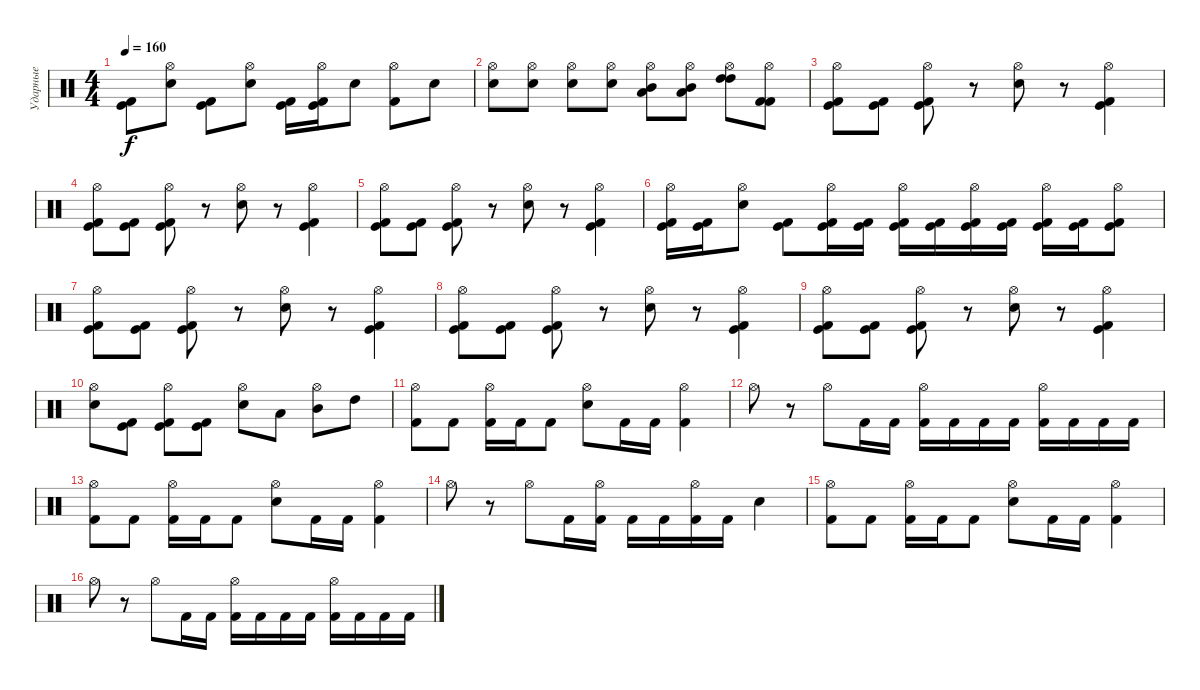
\track ("Ударные" "Ударные") {instrument percussion}
\staff {score}
\articulation defaults
\ts (4 4)
\tempo 160
\clef neutral
\ks c
("Kick (hit) 2" "Kick (hit)").8{dy f} ("Hi-Hat (open)" "Electric Snare (hit)").8 ("Kick (hit) 2" "Kick (hit)").8 ("Hi-Hat (open)" "Electric Snare (hit)").8 ("Kick (hit) 2" "Kick (hit)").16 ("Hi-Hat (open)" "Kick (hit) 2" "Kick (hit)").16 "Electric Snare (hit)".8 ("Hi-Hat (open)" "Kick (hit) 2").8 "Electric Snare (hit)".8 |
("Hi-Hat (open)" "Electric Snare (hit)").8 ("Hi-Hat (open)" "Electric Snare (hit)").8 ("Hi-Hat (open)" "Electric Snare (hit)").8 ("Hi-Hat (open)" "Electric Snare (hit)").8 ("Hi-Hat (open)" "Low Tom (hit)" "Mid Tom (hit)").8 ("Hi-Hat (open)" "Low Tom (hit)" "Mid Tom (hit)").8 ("Hi-Hat (open)" "High Tom (hit)" "High Tom (hit)").8 ("Hi-Hat (open)" "Kick (hit) 2" "Kick (hit) 2").8 |
("Hi-Hat (open)" "Kick (hit) 2" "Kick (hit)").8 ("Kick (hit) 2" "Kick (hit)").8 ("Hi-Hat (open)" "Kick (hit) 2" "Kick (hit)").8 r.8 ("Hi-Hat (open)" "Electric Snare (hit)").8 r.8 ("Hi-Hat (open)" "Kick (hit) 2" "Kick (hit)").4 |
("Hi-Hat (open)" "Kick (hit) 2" "Kick (hit)").8 ("Kick (hit) 2" "Kick (hit)").8 ("Hi-Hat (open)" "Kick (hit) 2" "Kick (hit)").8 r.8 ("Hi-Hat (open)" "Electric Snare (hit)").8 r.8 ("Hi-Hat (open)" "Kick (hit) 2" "Kick (hit)").4 |
("Hi-Hat (open)" "Kick (hit) 2" "Kick (hit)").8 ("Kick (hit) 2" "Kick (hit)").8 ("Hi-Hat (open)" "Kick (hit) 2" "Kick (hit)").8 r.8 ("Hi-Hat (open)" "Electric Snare (hit)").8 r.8 ("Hi-Hat (open)" "Kick (hit) 2" "Kick (hit)").4 |
("Hi-Hat (open)" "Kick (hit) 2" "Kick (hit)").16 ("Kick (hit) 2" "Kick (hit)").16 ("Hi-Hat (open)" "Electric Snare (hit)").8 ("Kick (hit) 2" "Kick (hit)").8 ("Hi-Hat (open)" "Kick (hit) 2" "Kick (hit)").16 ("Kick (hit) 2" "Kick (hit)").16 ("Hi-Hat (open)" "Kick (hit) 2" "Kick (hit)").16 ("Kick (hit) 2" "Kick (hit)").16 ("Hi-Hat (open)" "Kick (hit) 2" "Kick (hit)").16 ("Kick (hit) 2" "Kick (hit)").16 ("Hi-Hat (open)" "Kick (hit) 2" "Kick (hit)").16 ("Kick (hit) 2" "Kick (hit)").16 ("Hi-Hat (open)" "Kick (hit) 2" "Kick (hit)").8 |
("Hi-Hat (open)" "Kick (hit) 2" "Kick (hit)").8 ("Kick (hit) 2" "Kick (hit)").8 ("Hi-Hat (open)" "Kick (hit) 2" "Kick (hit)").8 r.8 ("Hi-Hat (open)" "Electric Snare (hit)").8 r.8 ("Hi-Hat (open)" "Kick (hit) 2" "Kick (hit)").4 |
("Hi-Hat (open)" "Kick (hit) 2" "Kick (hit)").8 ("Kick (hit) 2" "Kick (hit)").8 ("Hi-Hat (open)" "Kick (hit) 2" "Kick (hit)").8 r.8 ("Hi-Hat (open)" "Electric Snare (hit)").8 r.8 ("Hi-Hat (open)" "Kick (hit) 2" "Kick (hit)").4 |
("Hi-Hat (open)" "Kick (hit) 2" "Kick (hit)").8 ("Kick (hit) 2" "Kick (hit)").8 ("Hi-Hat (open)" "Kick (hit) 2" "Kick (hit)").8 r.8 ("Hi-Hat (open)" "Electric Snare (hit)").8 r.8 ("Hi-Hat (open)" "Kick (hit) 2" "Kick (hit)").4 |
("Hi-Hat (open)" "Electric Snare (hit)").8 ("Kick (hit) 2" "Kick (hit)").8 ("Hi-Hat (open)" "Kick (hit) 2" "Kick (hit)").8 ("Kick (hit) 2" "Kick (hit)").8 ("Hi-Hat (open)" "Electric Snare (hit)").8 "Low Tom (hit)".8 ("Hi-Hat (open)" "Mid Tom (hit)").8 "High Tom (hit)".8 |
("Hi-Hat (open)" "Kick (hit) 2").8 "Kick (hit) 2".8 ("Hi-Hat (open)" "Kick (hit) 2").16 "Kick (hit) 2".16 "Kick (hit) 2".8 ("Hi-Hat (open)" "Electric Snare (hit)").8 "Kick (hit) 2".16 "Kick (hit) 2".16 ("Hi-Hat (open)" "Kick (hit) 2").4 |
"Hi-Hat (open)".8 r.8 "Hi-Hat (open)".8 "Kick (hit) 2".16 "Kick (hit) 2".16 ("Hi-Hat (open)" "Kick (hit) 2").16 "Kick (hit) 2".16 "Kick (hit) 2".16 "Kick (hit) 2".16 ("Hi-Hat (open)" "Kick (hit) 2").16 "Kick (hit) 2".16 "Kick (hit) 2".16 "Kick (hit) 2".16 |
("Hi-Hat (open)" "Kick (hit) 2").8 "Kick (hit) 2".8 ("Hi-Hat (open)" "Kick (hit) 2").16 "Kick (hit) 2".16 "Kick (hit) 2".8 ("Hi-Hat (open)" "Electric Snare (hit)").8 "Kick (hit) 2".16 "Kick (hit) 2".16 ("Hi-Hat (open)" "Kick (hit) 2").4 |
"Hi-Hat (open)".8 r.8 "Hi-Hat (open)".8 "Kick (hit) 2".16 ("Hi-Hat (open)" "Kick (hit) 2").16 "Kick (hit) 2".16 "Kick (hit) 2".16 ("Hi-Hat (open)" "Kick (hit) 2").16 "Kick (hit) 2".16 "Electric Snare (hit)".4 |
("Hi-Hat (open)" "Kick (hit) 2").8 "Kick (hit) 2".8 ("Hi-Hat (open)" "Kick (hit) 2").16 "Kick (hit) 2".16 "Kick (hit) 2".8 ("Hi-Hat (open)" "Electric Snare (hit)").8 "Kick (hit) 2".16 "Kick (hit) 2".16 ("Hi-Hat (open)" "Kick (hit) 2").4 |
"Hi-Hat (open)".8 r.8 "Hi-Hat (open)".8 "Kick (hit) 2".16 "Kick (hit) 2".16 ("Hi-Hat (open)" "Kick (hit) 2").16 "Kick (hit) 2".16 "Kick (hit) 2".16 "Kick (hit) 2".16 ("Hi-Hat (open)" "Kick (hit) 2").16 "Kick (hit) 2".16 "Kick (hit) 2".16 "Kick (hit) 2".16
